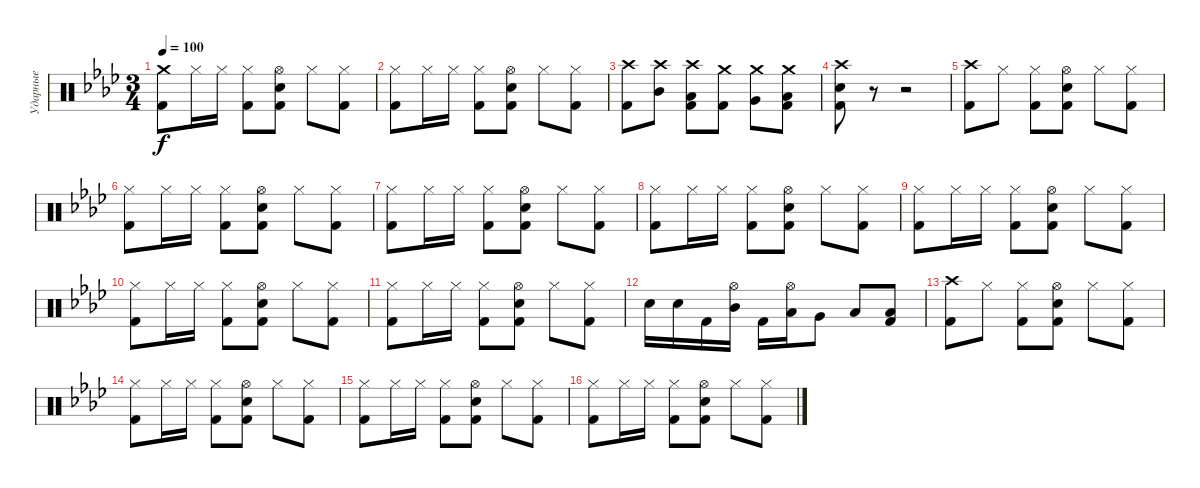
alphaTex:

\track ("Ударные" "Ударные") {instrument percussion}
\staff {score}
\articulation defaults
\ts (3 4)
\tempo 100
\clef neutral
\ks fminor
("Kick (hit) 2" "Crash medium (hit)").8{dy f} "Hi-Hat (closed)".16 "Hi-Hat (closed)".16 ("Kick (hit) 2" "Hi-Hat (closed)").8 ("Snare (hit) 2" "Kick (hit) 2" "Hi-Hat (open)").8 "Hi-Hat (closed)".8 ("Kick (hit) 2" "Hi-Hat (closed)").8 |
("Kick (hit) 2" "Hi-Hat (closed)").8 "Hi-Hat (closed)".16 "Hi-Hat (closed)".16 ("Kick (hit) 2" "Hi-Hat (closed)").8 ("Snare (hit) 2" "Kick (hit) 2" "Hi-Hat (open)").8 "Hi-Hat (closed)".8 ("Kick (hit) 2" "Hi-Hat (closed)").8 |
("Kick (hit) 2" "Crash high (hit)").8 ("Mid Tom (hit)" "Crash high (hit)").8 ("Low Tom (hit)" "Kick (hit) 2" "Crash high (hit)").8 ("Kick (hit) 2" "Crash medium (hit)").8 ("Very Low Tom (hit)" "Crash medium (hit)").8 ("Low Floor Tom (hit)" "Kick (hit) 2" "Crash medium (hit)").8 |
("Snare (hit) 2" "Kick (hit) 2" "Crash high (hit)").8 r.8 r.2 |
("Kick (hit) 2" "Crash high (hit)").8 "Hi-Hat (closed)".8 ("Kick (hit) 2" "Hi-Hat (closed)").8 ("Snare (hit) 2" "Kick (hit) 2" "Hi-Hat (open)").8 "Hi-Hat (closed)".8 ("Kick (hit) 2" "Hi-Hat (closed)").8 |
("Kick (hit) 2" "Hi-Hat (closed)").8 "Hi-Hat (closed)".16 "Hi-Hat (closed)".16 ("Kick (hit) 2" "Hi-Hat (closed)").8 ("Snare (hit) 2" "Kick (hit) 2" "Hi-Hat (open)").8 "Hi-Hat (closed)".8 ("Kick (hit) 2" "Hi-Hat (closed)").8 |
("Kick (hit) 2" "Hi-Hat (closed)").8 "Hi-Hat (closed)".16 "Hi-Hat (closed)".16 ("Kick (hit) 2" "Hi-Hat (closed)").8 ("Snare (hit) 2" "Kick (hit) 2" "Hi-Hat (open)").8 "Hi-Hat (closed)".8 ("Kick (hit) 2" "Hi-Hat (closed)").8 |
("Kick (hit) 2" "Hi-Hat (closed)").8 "Hi-Hat (closed)".16 "Hi-Hat (closed)".16 ("Kick (hit) 2" "Hi-Hat (closed)").8 ("Snare (hit) 2" "Kick (hit) 2" "Hi-Hat (open)").8 "Hi-Hat (closed)".8 ("Kick (hit) 2" "Hi-Hat (closed)").8 |
("Kick (hit) 2" "Hi-Hat (closed)").8 "Hi-Hat (closed)".16 "Hi-Hat (closed)".16 ("Kick (hit) 2" "Hi-Hat (closed)").8 ("Snare (hit) 2" "Kick (hit) 2" "Hi-Hat (open)").8 "Hi-Hat (closed)".8 ("Kick (hit) 2" "Hi-Hat (closed)").8 |
("Kick (hit) 2" "Hi-Hat (closed)").8 "Hi-Hat (closed)".16 "Hi-Hat (closed)".16 ("Kick (hit) 2" "Hi-Hat (closed)").8 ("Snare (hit) 2" "Kick (hit) 2" "Hi-Hat (open)").8 "Hi-Hat (closed)".8 ("Kick (hit) 2" "Hi-Hat (closed)").8 |
("Kick (hit) 2" "Hi-Hat (closed)").8 "Hi-Hat (closed)".16 "Hi-Hat (closed)".16 ("Kick (hit) 2" "Hi-Hat (closed)").8 ("Snare (hit) 2" "Kick (hit) 2" "Hi-Hat (open)").8 "Hi-Hat (closed)".8 ("Kick (hit) 2" "Hi-Hat (closed)").8 |
"Snare (hit) 2".16 "Snare (hit) 2".16 "Kick (hit) 2".16 ("Mid Tom (hit)" "Hi-Hat (open)").16 "Kick (hit) 2".16 ("Low Tom (hit)" "Hi-Hat (open)").16 "Very Low Tom (hit)".8 "Low Floor Tom (hit)".8 ("Low Floor Tom (hit)" "Kick (hit) 2").8 |
("Kick (hit) 2" "Crash high (hit)").8 "Hi-Hat (closed)".8 ("Kick (hit) 2" "Hi-Hat (closed)").8 ("Snare (hit) 2" "Kick (hit) 2" "Hi-Hat (open)").8 "Hi-Hat (closed)".8 ("Kick (hit) 2" "Hi-Hat (closed)").8 |
("Kick (hit) 2" "Hi-Hat (closed)").8 "Hi-Hat (closed)".16 "Hi-Hat (closed)".16 ("Kick (hit) 2" "Hi-Hat (closed)").8 ("Snare (hit) 2" "Kick (hit) 2" "Hi-Hat (open)").8 "Hi-Hat (closed)".8 ("Kick (hit) 2" "Hi-Hat (closed)").8 |
("Kick (hit) 2" "Hi-Hat (closed)").8 "Hi-Hat (closed)".16 "Hi-Hat (closed)".16 ("Kick (hit) 2" "Hi-Hat (closed)").8 ("Snare (hit) 2" "Kick (hit) 2" "Hi-Hat (open)").8 "Hi-Hat (closed)".8 ("Kick (hit) 2" "Hi-Hat (closed)").8 |
("Kick (hit) 2" "Hi-Hat (closed)").8 "Hi-Hat (closed)".16 "Hi-Hat (closed)".16 ("Kick (hit) 2" "Hi-Hat (closed)").8 ("Snare (hit) 2" "Kick (hit) 2" "Hi-Hat (open)").8 "Hi-Hat (closed)".8 ("Kick (hit) 2" "Hi-Hat (closed)").8
